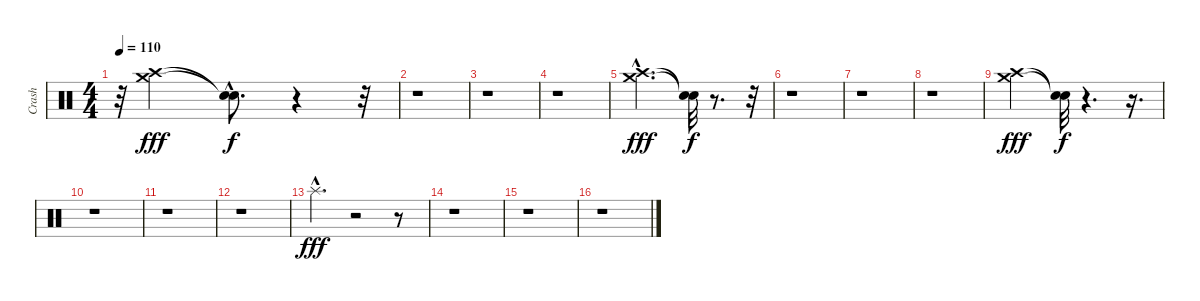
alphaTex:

\track ("Crash" "Crash") {instrument percussion}
\staff {score}
\articulation defaults
\ts (4 4)
\tempo 110
\clef neutral
\ks c
r.32{dy f} ("Crash high (hit)" "Crash medium (hit)").2{dy fff} ("Snare (hit)"{hac t} "Snare (hit)"{hac t}).8{d dy f} r.4 r.32 |
r.1 |
r.1 |
r.1 |
("Crash high (hit)"{hac} "Crash medium (hit)"{hac}).2{d dy fff} ("Snare (hit)"{t} "Snare (hit)"{t}).32{dy f} r.8{d} r.32 |
r.1 |
r.1 |
r.1 |
("Crash medium (hit)" "Crash high (hit)").2{dy fff} ("Snare (hit)"{t} "Snare (hit)"{t}).32{dy f} r.4{d} r.16{d} |
r.1 |
r.1 |
r.1 |
"Splash (hit)"{hac}.4{d dy fff} r.2 r.8 |
r.1 |
r.1 |
r.1
